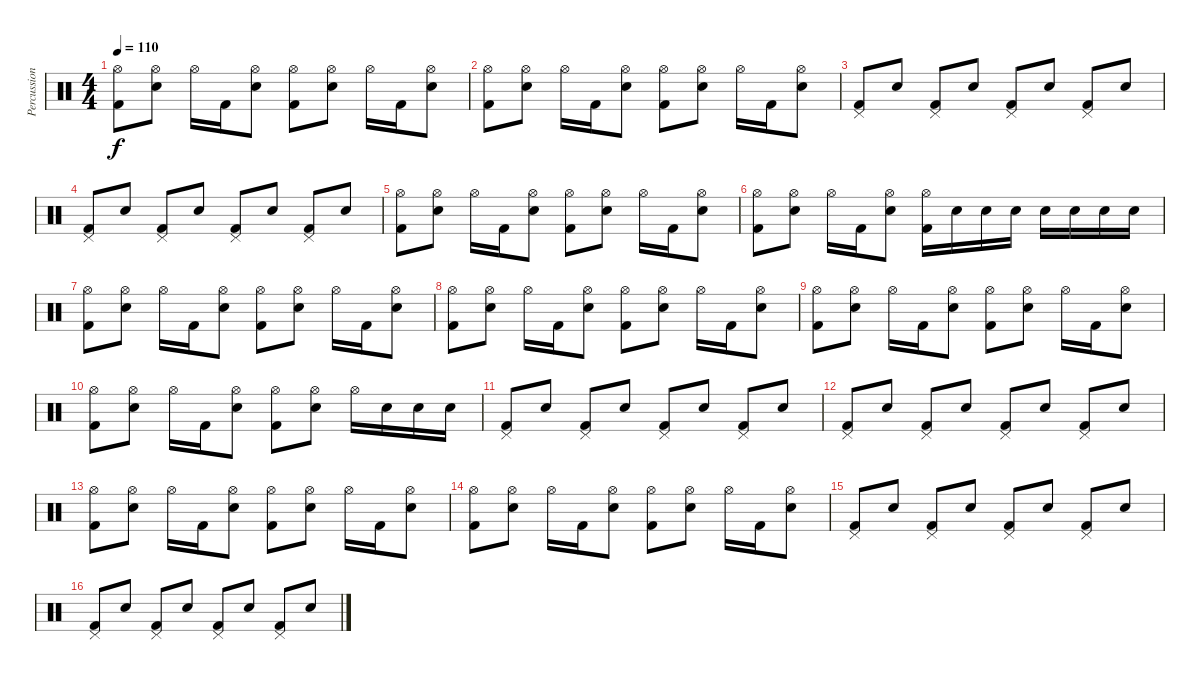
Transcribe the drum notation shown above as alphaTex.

\track ("Percussions" "Percussion") {instrument percussion}
\staff {score}
\articulation defaults
\ts (4 4)
\tempo 110
\clef neutral
\ks c
("Hi-Hat (open)" "Kick (hit) 2").8{dy f} ("Hi-Hat (open)" "Electric Snare (hit)").8 "Hi-Hat (open)".16 "Kick (hit) 2".16 ("Hi-Hat (open)" "Electric Snare (hit)").8 ("Hi-Hat (open)" "Kick (hit) 2").8 ("Hi-Hat (open)" "Electric Snare (hit)").8 "Hi-Hat (open)".16 "Kick (hit) 2".16 ("Hi-Hat (open)" "Electric Snare (hit)").8 |
("Hi-Hat (open)" "Kick (hit) 2").8 ("Hi-Hat (open)" "Electric Snare (hit)").8 "Hi-Hat (open)".16 "Kick (hit) 2".16 ("Hi-Hat (open)" "Electric Snare (hit)").8 ("Hi-Hat (open)" "Kick (hit) 2").8 ("Hi-Hat (open)" "Electric Snare (hit)").8 "Hi-Hat (open)".16 "Kick (hit) 2".16 ("Hi-Hat (open)" "Electric Snare (hit)").8 |
("Pedal Hi-Hat (hit)" "Kick (hit) 2").8 "Electric Snare (hit)".8 ("Pedal Hi-Hat (hit)" "Kick (hit) 2").8 "Electric Snare (hit)".8 ("Pedal Hi-Hat (hit)" "Kick (hit) 2").8 "Electric Snare (hit)".8 ("Pedal Hi-Hat (hit)" "Kick (hit) 2").8 "Electric Snare (hit)".8 |
("Pedal Hi-Hat (hit)" "Kick (hit) 2").8 "Electric Snare (hit)".8 ("Pedal Hi-Hat (hit)" "Kick (hit) 2").8 "Electric Snare (hit)".8 ("Pedal Hi-Hat (hit)" "Kick (hit) 2").8 "Electric Snare (hit)".8 ("Pedal Hi-Hat (hit)" "Kick (hit) 2").8 "Electric Snare (hit)".8 |
("Hi-Hat (open)" "Kick (hit) 2").8 ("Hi-Hat (open)" "Electric Snare (hit)").8 "Hi-Hat (open)".16 "Kick (hit) 2".16 ("Hi-Hat (open)" "Electric Snare (hit)").8 ("Hi-Hat (open)" "Kick (hit) 2").8 ("Hi-Hat (open)" "Electric Snare (hit)").8 "Hi-Hat (open)".16 "Kick (hit) 2".16 ("Hi-Hat (open)" "Electric Snare (hit)").8 |
("Hi-Hat (open)" "Kick (hit) 2").8 ("Hi-Hat (open)" "Electric Snare (hit)").8 "Hi-Hat (open)".16 "Kick (hit) 2".16 ("Hi-Hat (open)" "Electric Snare (hit)").8 ("Hi-Hat (open)" "Kick (hit) 2").16 "Electric Snare (hit)".16 "Electric Snare (hit)".16 "Electric Snare (hit)".16 "Electric Snare (hit)".16 "Electric Snare (hit)".16 "Electric Snare (hit)".16 "Electric Snare (hit)".16 |
("Hi-Hat (open)" "Kick (hit) 2").8 ("Hi-Hat (open)" "Electric Snare (hit)").8 "Hi-Hat (open)".16 "Kick (hit) 2".16 ("Hi-Hat (open)" "Electric Snare (hit)").8 ("Hi-Hat (open)" "Kick (hit) 2").8 ("Hi-Hat (open)" "Electric Snare (hit)").8 "Hi-Hat (open)".16 "Kick (hit) 2".16 ("Hi-Hat (open)" "Electric Snare (hit)").8 |
("Hi-Hat (open)" "Kick (hit) 2").8 ("Hi-Hat (open)" "Electric Snare (hit)").8 "Hi-Hat (open)".16 "Kick (hit) 2".16 ("Hi-Hat (open)" "Electric Snare (hit)").8 ("Hi-Hat (open)" "Kick (hit) 2").8 ("Hi-Hat (open)" "Electric Snare (hit)").8 "Hi-Hat (open)".16 "Kick (hit) 2".16 ("Hi-Hat (open)" "Electric Snare (hit)").8 |
("Hi-Hat (open)" "Kick (hit) 2").8 ("Hi-Hat (open)" "Electric Snare (hit)").8 "Hi-Hat (open)".16 "Kick (hit) 2".16 ("Hi-Hat (open)" "Electric Snare (hit)").8 ("Hi-Hat (open)" "Kick (hit) 2").8 ("Hi-Hat (open)" "Electric Snare (hit)").8 "Hi-Hat (open)".16 "Kick (hit) 2".16 ("Hi-Hat (open)" "Electric Snare (hit)").8 |
("Hi-Hat (open)" "Kick (hit) 2").8 ("Hi-Hat (open)" "Electric Snare (hit)").8 "Hi-Hat (open)".16 "Kick (hit) 2".16 ("Hi-Hat (open)" "Electric Snare (hit)").8 ("Hi-Hat (open)" "Kick (hit) 2").8 ("Hi-Hat (open)" "Electric Snare (hit)").8 "Hi-Hat (open)".16 "Electric Snare (hit)".16 "Electric Snare (hit)".16 "Electric Snare (hit)".16 |
("Pedal Hi-Hat (hit)" "Kick (hit) 2").8 "Electric Snare (hit)".8 ("Pedal Hi-Hat (hit)" "Kick (hit) 2").8 "Electric Snare (hit)".8 ("Pedal Hi-Hat (hit)" "Kick (hit) 2").8 "Electric Snare (hit)".8 ("Pedal Hi-Hat (hit)" "Kick (hit) 2").8 "Electric Snare (hit)".8 |
("Pedal Hi-Hat (hit)" "Kick (hit) 2").8 "Electric Snare (hit)".8 ("Pedal Hi-Hat (hit)" "Kick (hit) 2").8 "Electric Snare (hit)".8 ("Pedal Hi-Hat (hit)" "Kick (hit) 2").8 "Electric Snare (hit)".8 ("Pedal Hi-Hat (hit)" "Kick (hit) 2").8 "Electric Snare (hit)".8 |
("Hi-Hat (open)" "Kick (hit) 2").8 ("Hi-Hat (open)" "Electric Snare (hit)").8 "Hi-Hat (open)".16 "Kick (hit) 2".16 ("Hi-Hat (open)" "Electric Snare (hit)").8 ("Hi-Hat (open)" "Kick (hit) 2").8 ("Hi-Hat (open)" "Electric Snare (hit)").8 "Hi-Hat (open)".16 "Kick (hit) 2".16 ("Hi-Hat (open)" "Electric Snare (hit)").8 |
("Hi-Hat (open)" "Kick (hit) 2").8 ("Hi-Hat (open)" "Electric Snare (hit)").8 "Hi-Hat (open)".16 "Kick (hit) 2".16 ("Hi-Hat (open)" "Electric Snare (hit)").8 ("Hi-Hat (open)" "Kick (hit) 2").8 ("Hi-Hat (open)" "Electric Snare (hit)").8 "Hi-Hat (open)".16 "Kick (hit) 2".16 ("Hi-Hat (open)" "Electric Snare (hit)").8 |
("Pedal Hi-Hat (hit)" "Kick (hit) 2").8 "Electric Snare (hit)".8 ("Pedal Hi-Hat (hit)" "Kick (hit) 2").8 "Electric Snare (hit)".8 ("Pedal Hi-Hat (hit)" "Kick (hit) 2").8 "Electric Snare (hit)".8 ("Pedal Hi-Hat (hit)" "Kick (hit) 2").8 "Electric Snare (hit)".8 |
("Pedal Hi-Hat (hit)" "Kick (hit) 2").8 "Electric Snare (hit)".8 ("Pedal Hi-Hat (hit)" "Kick (hit) 2").8 "Electric Snare (hit)".8 ("Pedal Hi-Hat (hit)" "Kick (hit) 2").8 "Electric Snare (hit)".8 ("Pedal Hi-Hat (hit)" "Kick (hit) 2").8 "Electric Snare (hit)".8
